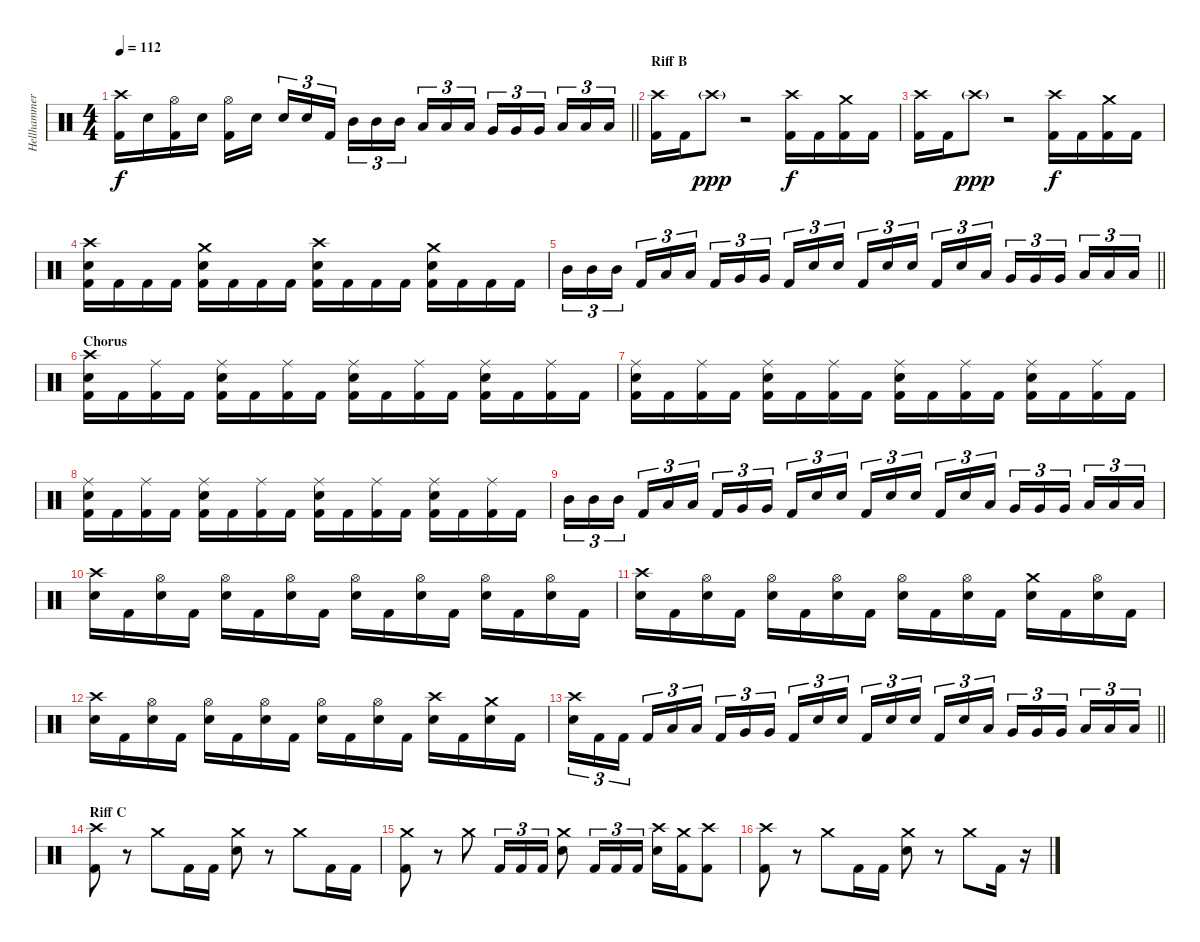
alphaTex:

\track ("Hellhammer" "Hellhammer") {instrument percussion}
\staff {score}
\articulation defaults
\ts (4 4)
\tempo 112
\clef neutral
\barLineRight lightlight
\ks c
("Crash high (hit)" "Kick (hit) 2").16{dy f} "Snare (hit) 2".16 ("Hi-Hat (open)" "Kick (hit) 2").16 "Snare (hit) 2".16 ("Hi-Hat (open)" "Kick (hit) 2").16 "Snare (hit) 2".16{beam splitsecondary} "Snare (hit) 2".16{tu (3 2)} "Snare (hit) 2".16{tu (3 2)} "Kick (hit) 2".16{tu (3 2)} "Mid Tom (hit)".16{tu (3 2)} "Mid Tom (hit)".16{tu (3 2)} "Mid Tom (hit)".16{tu (3 2) beam splitsecondary} "Low Tom (hit)".16{tu (3 2)} "Low Tom (hit)".16{tu (3 2)} "Low Tom (hit)".16{tu (3 2)} "Very Low Tom (hit)".16{tu (3 2)} "Very Low Tom (hit)".16{tu (3 2)} "Very Low Tom (hit)".16{tu (3 2) beam splitsecondary} "Low Floor Tom (hit)".16{tu (3 2)} "Low Floor Tom (hit)".16{tu (3 2)} "Low Floor Tom (hit)".16{tu (3 2)} |
\section ("" "Riff B")
("Crash high (hit)" "Kick (hit) 2").16 "Kick (hit) 2".16 "Crash high (hit)"{g}.8{dy ppp} r.2 ("Crash high (hit)" "Kick (hit) 2").16{dy f} "Kick (hit) 2".16 ("Crash medium (hit)" "Kick (hit) 2").16 "Kick (hit) 2".16 |
("Crash high (hit)" "Kick (hit) 2").16 "Kick (hit) 2".16 "Crash high (hit)"{g}.8{dy ppp} r.2 ("Crash high (hit)" "Kick (hit) 2").16{dy f} "Kick (hit) 2".16 ("Crash medium (hit)" "Kick (hit) 2").16 "Kick (hit) 2".16 |
("Crash high (hit)" "Snare (hit) 2" "Kick (hit) 2").16 "Kick (hit) 2".16 "Kick (hit) 2".16 "Kick (hit) 2".16 ("Crash medium (hit)" "Snare (hit) 2" "Kick (hit) 2").16 "Kick (hit) 2".16 "Kick (hit) 2".16 "Kick (hit) 2".16 ("Crash high (hit)" "Snare (hit) 2" "Kick (hit) 2").16 "Kick (hit) 2".16 "Kick (hit) 2".16 "Kick (hit) 2".16 ("Crash medium (hit)" "Snare (hit) 2" "Kick (hit) 2").16 "Kick (hit) 2".16 "Kick (hit) 2".16 "Kick (hit) 2".16 |
\barLineRight lightlight "Mid Tom (hit)".16{tu (3 2)} "Mid Tom (hit)".16{tu (3 2)} "Mid Tom (hit)".16{tu (3 2) beam splitsecondary} "Kick (hit) 2".16{tu (3 2)} "Low Tom (hit)".16{tu (3 2)} "Low Tom (hit)".16{tu (3 2)} "Kick (hit) 2".16{tu (3 2)} "Very Low Tom (hit)".16{tu (3 2)} "Very Low Tom (hit)".16{tu (3 2) beam splitsecondary} "Kick (hit) 2".16{tu (3 2)} "Snare (hit) 2".16{tu (3 2)} "Snare (hit) 2".16{tu (3 2)} "Kick (hit) 2".16{tu (3 2)} "Snare (hit) 2".16{tu (3 2)} "Snare (hit) 2".16{tu (3 2) beam splitsecondary} "Kick (hit) 2".16{tu (3 2)} "Snare (hit) 2".16{tu (3 2)} "Low Tom (hit)".16{tu (3 2)} "Very Low Tom (hit)".16{tu (3 2)} "Very Low Tom (hit)".16{tu (3 2)} "Very Low Tom (hit)".16{tu (3 2) beam splitsecondary} "Low Floor Tom (hit)".16{tu (3 2)} "Low Floor Tom (hit)".16{tu (3 2)} "Low Floor Tom (hit)".16{tu (3 2)}
|
\section ("" "Chorus")
("Crash high (hit)" "Snare (hit) 2" "Kick (hit) 2").16 "Kick (hit) 2".16 ("Ride (middle)" "Kick (hit) 2").16 "Kick (hit) 2".16 ("Ride (middle)" "Snare (hit) 2" "Kick (hit) 2").16 "Kick (hit) 2".16 ("Ride (middle)" "Kick (hit) 2").16 "Kick (hit) 2".16 ("Ride (middle)" "Snare (hit) 2" "Kick (hit) 2").16 "Kick (hit) 2".16 ("Ride (middle)" "Kick (hit) 2").16 "Kick (hit) 2".16 ("Ride (middle)" "Snare (hit) 2" "Kick (hit) 2").16 "Kick (hit) 2".16 ("Ride (middle)" "Kick (hit) 2").16 "Kick (hit) 2".16 |
("Ride (middle)" "Snare (hit) 2" "Kick (hit) 2").16 "Kick (hit) 2".16 ("Ride (middle)" "Kick (hit) 2").16 "Kick (hit) 2".16 ("Ride (middle)" "Snare (hit) 2" "Kick (hit) 2").16 "Kick (hit) 2".16 ("Ride (middle)" "Kick (hit) 2").16 "Kick (hit) 2".16 ("Ride (middle)" "Snare (hit) 2" "Kick (hit) 2").16 "Kick (hit) 2".16 ("Ride (middle)" "Kick (hit) 2").16 "Kick (hit) 2".16 ("Ride (middle)" "Snare (hit) 2" "Kick (hit) 2").16 "Kick (hit) 2".16 ("Ride (middle)" "Kick (hit) 2").16 "Kick (hit) 2".16 |
("Ride (middle)" "Snare (hit) 2" "Kick (hit) 2").16 "Kick (hit) 2".16 ("Ride (middle)" "Kick (hit) 2").16 "Kick (hit) 2".16 ("Ride (middle)" "Snare (hit) 2" "Kick (hit) 2").16 "Kick (hit) 2".16 ("Ride (middle)" "Kick (hit) 2").16 "Kick (hit) 2".16 ("Ride (middle)" "Snare (hit) 2" "Kick (hit) 2").16 "Kick (hit) 2".16 ("Ride (middle)" "Kick (hit) 2").16 "Kick (hit) 2".16 ("Ride (middle)" "Snare (hit) 2" "Kick (hit) 2").16 "Kick (hit) 2".16 ("Ride (middle)" "Kick (hit) 2").16 "Kick (hit) 2".16 |
"Mid Tom (hit)".16{tu (3 2)} "Mid Tom (hit)".16{tu (3 2)} "Mid Tom (hit)".16{tu (3 2) beam splitsecondary} "Kick (hit) 2".16{tu (3 2)} "Low Tom (hit)".16{tu (3 2)} "Low Tom (hit)".16{tu (3 2)} "Kick (hit) 2".16{tu (3 2)} "Very Low Tom (hit)".16{tu (3 2)} "Very Low Tom (hit)".16{tu (3 2) beam splitsecondary} "Kick (hit) 2".16{tu (3 2)} "Snare (hit) 2".16{tu (3 2)} "Snare (hit) 2".16{tu (3 2)} "Kick (hit) 2".16{tu (3 2)} "Snare (hit) 2".16{tu (3 2)} "Snare (hit) 2".16{tu (3 2) beam splitsecondary} "Kick (hit) 2".16{tu (3 2)} "Snare (hit) 2".16{tu (3 2)} "Low Tom (hit)".16{tu (3 2)} "Very Low Tom (hit)".16{tu (3 2)} "Very Low Tom (hit)".16{tu (3 2)} "Very Low Tom (hit)".16{tu (3 2) beam splitsecondary} "Low Floor Tom (hit)".16{tu (3 2)} "Low Floor Tom (hit)".16{tu (3 2)} "Low Floor Tom (hit)".16{tu (3 2)} |
("Crash high (hit)" "Snare (hit) 2").16 "Kick (hit) 2".16 ("Hi-Hat (open)" "Snare (hit) 2").16 "Kick (hit) 2".16 ("Hi-Hat (open)" "Snare (hit) 2").16 "Kick (hit) 2".16 ("Hi-Hat (open)" "Snare (hit) 2").16 "Kick (hit) 2".16 ("Hi-Hat (open)" "Snare (hit) 2").16 "Kick (hit) 2".16 ("Hi-Hat (open)" "Snare (hit) 2").16 "Kick (hit) 2".16 ("Hi-Hat (open)" "Snare (hit) 2").16 "Kick (hit) 2".16 ("Hi-Hat (open)" "Snare (hit) 2").16 "Kick (hit) 2".16 |
("Crash high (hit)" "Snare (hit) 2").16 "Kick (hit) 2".16 ("Hi-Hat (open)" "Snare (hit) 2").16 "Kick (hit) 2".16 ("Hi-Hat (open)" "Snare (hit) 2").16 "Kick (hit) 2".16 ("Hi-Hat (open)" "Snare (hit) 2").16 "Kick (hit) 2".16 ("Hi-Hat (open)" "Snare (hit) 2").16 "Kick (hit) 2".16 ("Hi-Hat (open)" "Snare (hit) 2").16 "Kick (hit) 2".16 ("Crash medium (hit)" "Snare (hit) 2").16 "Kick (hit) 2".16 ("Hi-Hat (open)" "Snare (hit) 2").16 "Kick (hit) 2".16 |
("Crash high (hit)" "Snare (hit) 2").16 "Kick (hit) 2".16 ("Hi-Hat (open)" "Snare (hit) 2").16 "Kick (hit) 2".16 ("Hi-Hat (open)" "Snare (hit) 2").16 "Kick (hit) 2".16 ("Hi-Hat (open)" "Snare (hit) 2").16 "Kick (hit) 2".16 ("Hi-Hat (open)" "Snare (hit) 2").16 "Kick (hit) 2".16 ("Hi-Hat (open)" "Snare (hit) 2").16 "Kick (hit) 2".16 ("Crash high (hit)" "Snare (hit) 2").16 "Kick (hit) 2".16 ("Crash medium (hit)" "Snare (hit) 2").16 "Kick (hit) 2".16 |
\barLineRight lightlight
("Crash high (hit)" "Snare (hit) 2").16{tu (3 2)} "Kick (hit) 2".16{tu (3 2)} "Kick (hit) 2".16{tu (3 2) beam splitsecondary} "Kick (hit) 2".16{tu (3 2)} "Low Tom (hit)".16{tu (3 2)} "Low Tom (hit)".16{tu (3 2)} "Kick (hit) 2".16{tu (3 2)} "Very Low Tom (hit)".16{tu (3 2)} "Very Low Tom (hit)".16{tu (3 2) beam splitsecondary} "Kick (hit) 2".16{tu (3 2)} "Snare (hit) 2".16{tu (3 2)} "Snare (hit) 2".16{tu (3 2)} "Kick (hit) 2".16{tu (3 2)} "Snare (hit) 2".16{tu (3 2)} "Snare (hit) 2".16{tu (3 2) beam splitsecondary} "Kick (hit) 2".16{tu (3 2)} "Snare (hit) 2".16{tu (3 2)} "Low Tom (hit)".16{tu (3 2)} "Very Low Tom (hit)".16{tu (3 2)} "Very Low Tom (hit)".16{tu (3 2)} "Very Low Tom (hit)".16{tu (3 2) beam splitsecondary} "Low Floor Tom (hit)".16{tu (3 2)} "Low Floor Tom (hit)".16{tu (3 2)} "Low Floor Tom (hit)".16{tu (3 2)} |
\section ("" "Riff C")
("Crash high (hit)" "Kick (hit) 2").8 r.8 "Crash medium (hit)".8 "Kick (hit) 2".16 "Kick (hit) 2".16 ("Crash medium (hit)" "Snare (hit) 2").8 r.8 "Crash medium (hit)".8 "Kick (hit) 2".16 "Kick (hit) 2".16 |
("Crash medium (hit)" "Kick (hit) 2").8 r.8 "Crash medium (hit)".8 "Kick (hit) 2".16{tu (3 2)} "Kick (hit) 2".16{tu (3 2)} "Kick (hit) 2".16{tu (3 2)} ("Crash medium (hit)" "Snare (hit) 2").8 "Kick (hit) 2".16{tu (3 2)} "Kick (hit) 2".16{tu (3 2)} "Kick (hit) 2".16{tu (3 2)} ("Crash high (hit)" "Snare (hit) 2").16 ("Crash medium (hit)" "Kick (hit) 2").16 ("Crash high (hit)" "Kick (hit) 2").8 |
("Crash high (hit)" "Kick (hit) 2").8 r.8 "Crash medium (hit)".8 "Kick (hit) 2".16 "Kick (hit) 2".16 ("Crash medium (hit)" "Snare (hit) 2").8 r.8 "Crash medium (hit)".8 "Kick (hit) 2".16 r.16
